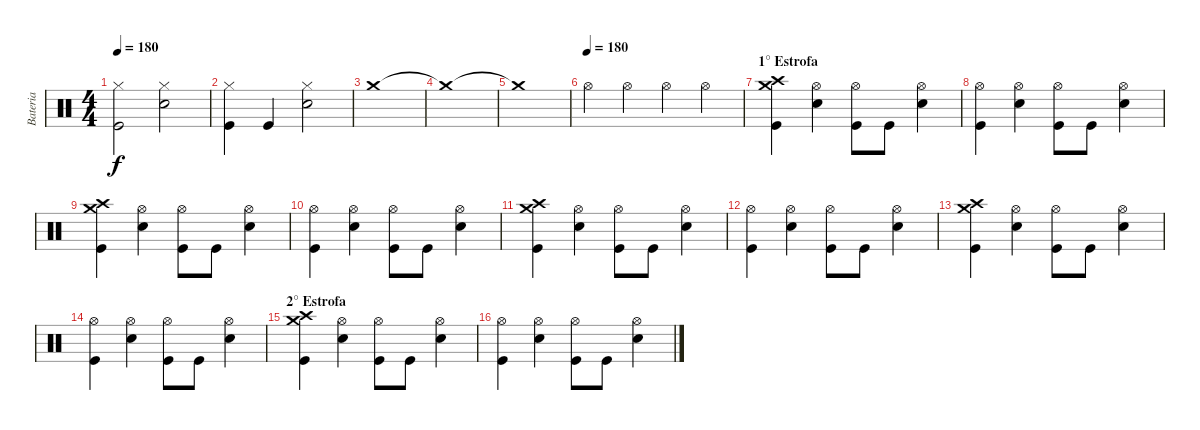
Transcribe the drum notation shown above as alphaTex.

\track ("Bateria" "Bateria") {instrument percussion}
\staff {score}
\articulation defaults
\ts (4 4)
\tempo 180
\clef neutral
\ks c
("Hi-Hat (closed)" "Kick (hit)").2{dy f} ("Hi-Hat (closed)" "Snare (hit) 2").2 |
("Hi-Hat (closed)" "Kick (hit)").4 "Kick (hit)".4 ("Hi-Hat (closed)" "Snare (hit) 2").2 |
"Crash medium (hit)".1 |
"Crash medium (hit)"{t}.1 |
"Crash medium (hit)"{t}.1 |
\tempo (180)
"Hi-Hat (open)".4 "Hi-Hat (open)".4 "Hi-Hat (open)".4 "Hi-Hat (open)".4 |
\section ("" "1° Estrofa")
("Crash medium (hit)" "Crash high (hit)" "Kick (hit)").4 ("Hi-Hat (open)" "Snare (hit) 2").4 ("Hi-Hat (open)" "Kick (hit)").8 "Kick (hit)".8 ("Hi-Hat (open)" "Snare (hit) 2").4 |
("Hi-Hat (open)" "Kick (hit)").4 ("Hi-Hat (open)" "Snare (hit) 2").4 ("Hi-Hat (open)" "Kick (hit)").8 "Kick (hit)".8 ("Hi-Hat (open)" "Snare (hit) 2").4 |
("Crash medium (hit)" "Crash high (hit)" "Kick (hit)").4 ("Hi-Hat (open)" "Snare (hit) 2").4 ("Hi-Hat (open)" "Kick (hit)").8 "Kick (hit)".8 ("Hi-Hat (open)" "Snare (hit) 2").4 |
("Hi-Hat (open)" "Kick (hit)").4 ("Hi-Hat (open)" "Snare (hit) 2").4 ("Hi-Hat (open)" "Kick (hit)").8 "Kick (hit)".8 ("Hi-Hat (open)" "Snare (hit) 2").4 |
("Crash medium (hit)" "Crash high (hit)" "Kick (hit)").4 ("Hi-Hat (open)" "Snare (hit) 2").4 ("Hi-Hat (open)" "Kick (hit)").8 "Kick (hit)".8 ("Hi-Hat (open)" "Snare (hit) 2").4 |
("Hi-Hat (open)" "Kick (hit)").4 ("Hi-Hat (open)" "Snare (hit) 2").4 ("Hi-Hat (open)" "Kick (hit)").8 "Kick (hit)".8 ("Hi-Hat (open)" "Snare (hit) 2").4 |
("Crash medium (hit)" "Crash high (hit)" "Kick (hit)").4 ("Hi-Hat (open)" "Snare (hit) 2").4 ("Hi-Hat (open)" "Kick (hit)").8 "Kick (hit)".8 ("Hi-Hat (open)" "Snare (hit) 2").4 |
("Hi-Hat (open)" "Kick (hit)").4 ("Hi-Hat (open)" "Snare (hit) 2").4 ("Hi-Hat (open)" "Kick (hit)").8 "Kick (hit)".8 ("Hi-Hat (open)" "Snare (hit) 2").4 |
\section ("" "2° Estrofa")
("Crash medium (hit)" "Crash high (hit)" "Kick (hit)").4 ("Hi-Hat (open)" "Snare (hit) 2").4 ("Hi-Hat (open)" "Kick (hit)").8 "Kick (hit)".8 ("Hi-Hat (open)" "Snare (hit) 2").4 |
("Hi-Hat (open)" "Kick (hit)").4 ("Hi-Hat (open)" "Snare (hit) 2").4 ("Hi-Hat (open)" "Kick (hit)").8 "Kick (hit)".8 ("Hi-Hat (open)" "Snare (hit) 2").4
